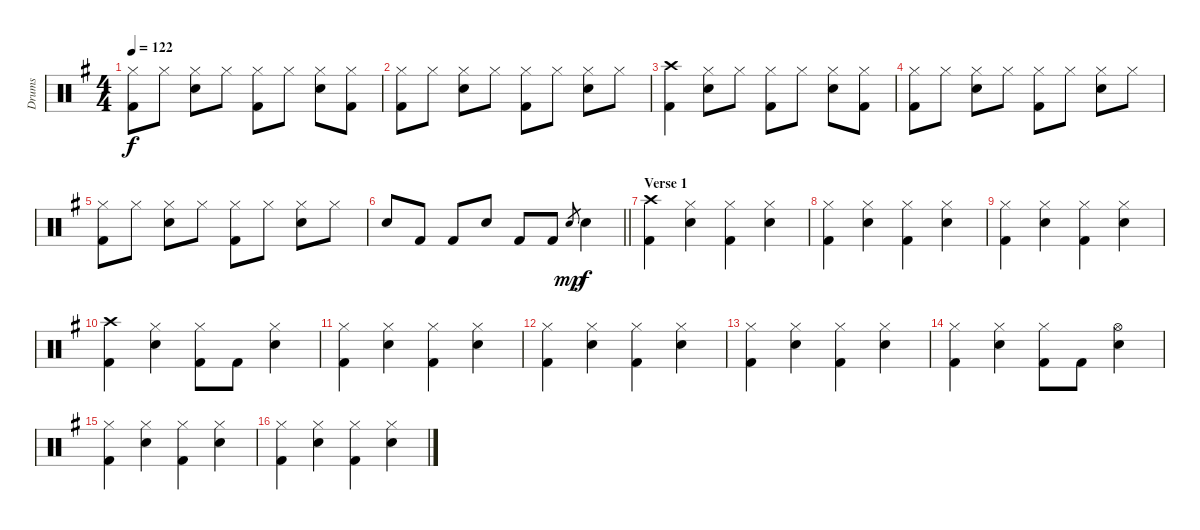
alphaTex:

\track ("Drums" "Drums") {instrument percussion}
\staff {score}
\articulation defaults
\ts (4 4)
\tempo 122
\clef neutral
\ks eminor
("Hi-Hat (closed)" "Kick (hit) 2").8{dy f} "Hi-Hat (closed)".8 ("Hi-Hat (closed)" "Electric Snare (hit)").8 "Hi-Hat (closed)".8 ("Hi-Hat (closed)" "Kick (hit) 2").8 "Hi-Hat (closed)".8 ("Hi-Hat (closed)" "Electric Snare (hit)").8 ("Hi-Hat (closed)" "Kick (hit) 2").8 |
("Hi-Hat (closed)" "Kick (hit) 2").8 "Hi-Hat (closed)".8 ("Hi-Hat (closed)" "Electric Snare (hit)").8 "Hi-Hat (closed)".8 ("Hi-Hat (closed)" "Kick (hit) 2").8 "Hi-Hat (closed)".8 ("Hi-Hat (closed)" "Electric Snare (hit)").8 "Hi-Hat (closed)".8 |
("Crash high (hit)" "Kick (hit) 2").4 ("Hi-Hat (closed)" "Electric Snare (hit)").8 "Hi-Hat (closed)".8 ("Hi-Hat (closed)" "Kick (hit) 2").8 "Hi-Hat (closed)".8 ("Hi-Hat (closed)" "Electric Snare (hit)").8 ("Hi-Hat (closed)" "Kick (hit) 2").8 |
("Hi-Hat (closed)" "Kick (hit) 2").8 "Hi-Hat (closed)".8 ("Hi-Hat (closed)" "Electric Snare (hit)").8 "Hi-Hat (closed)".8 ("Hi-Hat (closed)" "Kick (hit) 2").8 "Hi-Hat (closed)".8 ("Hi-Hat (closed)" "Electric Snare (hit)").8 "Hi-Hat (closed)".8 |
("Hi-Hat (closed)" "Kick (hit) 2").8 "Hi-Hat (closed)".8 ("Hi-Hat (closed)" "Electric Snare (hit)").8 "Hi-Hat (closed)".8 ("Hi-Hat (closed)" "Kick (hit) 2").8 "Hi-Hat (closed)".8 ("Hi-Hat (closed)" "Electric Snare (hit)").8 "Hi-Hat (closed)".8 |
\barLineRight lightlight "Electric Snare (hit)".8 "Kick (hit) 2".8 "Kick (hit) 2".8 "Electric Snare (hit)".8 "Kick (hit) 2".8 "Kick (hit) 2".8 "Electric Snare (hit)".8{gr dy mp} "Electric Snare (hit)".4{dy f}
|
\section ("" "Verse 1")
("Crash high (hit)" "Kick (hit) 2").4 ("Hi-Hat (closed)" "Electric Snare (hit)").4 ("Hi-Hat (closed)" "Kick (hit) 2").4 ("Hi-Hat (closed)" "Electric Snare (hit)").4 |
("Hi-Hat (closed)" "Kick (hit) 2").4 ("Hi-Hat (closed)" "Electric Snare (hit)").4 ("Hi-Hat (closed)" "Kick (hit) 2").4 ("Hi-Hat (closed)" "Electric Snare (hit)").4 |
("Hi-Hat (closed)" "Kick (hit) 2").4 ("Hi-Hat (closed)" "Electric Snare (hit)").4 ("Hi-Hat (closed)" "Kick (hit) 2").4 ("Hi-Hat (closed)" "Electric Snare (hit)").4 |
("Crash high (hit)" "Kick (hit) 2").4 ("Hi-Hat (closed)" "Electric Snare (hit)").4 ("Hi-Hat (closed)" "Kick (hit) 2").8 "Kick (hit) 2".8 ("Hi-Hat (closed)" "Electric Snare (hit)").4 |
("Hi-Hat (closed)" "Kick (hit) 2").4 ("Hi-Hat (closed)" "Electric Snare (hit)").4 ("Hi-Hat (closed)" "Kick (hit) 2").4 ("Hi-Hat (closed)" "Electric Snare (hit)").4 |
("Hi-Hat (closed)" "Kick (hit) 2").4 ("Hi-Hat (closed)" "Electric Snare (hit)").4 ("Hi-Hat (closed)" "Kick (hit) 2").4 ("Hi-Hat (closed)" "Electric Snare (hit)").4 |
("Hi-Hat (closed)" "Kick (hit) 2").4 ("Hi-Hat (closed)" "Electric Snare (hit)").4 ("Hi-Hat (closed)" "Kick (hit) 2").4 ("Hi-Hat (closed)" "Electric Snare (hit)").4 |
("Hi-Hat (closed)" "Kick (hit) 2").4 ("Hi-Hat (closed)" "Electric Snare (hit)").4 ("Hi-Hat (closed)" "Kick (hit) 2").8 "Kick (hit) 2".8 ("Hi-Hat (open)" "Electric Snare (hit)").4 |
("Hi-Hat (closed)" "Kick (hit) 2").4 ("Hi-Hat (closed)" "Electric Snare (hit)").4 ("Hi-Hat (closed)" "Kick (hit) 2").4 ("Hi-Hat (closed)" "Electric Snare (hit)").4 |
("Hi-Hat (closed)" "Kick (hit) 2").4 ("Hi-Hat (closed)" "Electric Snare (hit)").4 ("Hi-Hat (closed)" "Kick (hit) 2").4 ("Hi-Hat (closed)" "Electric Snare (hit)").4
